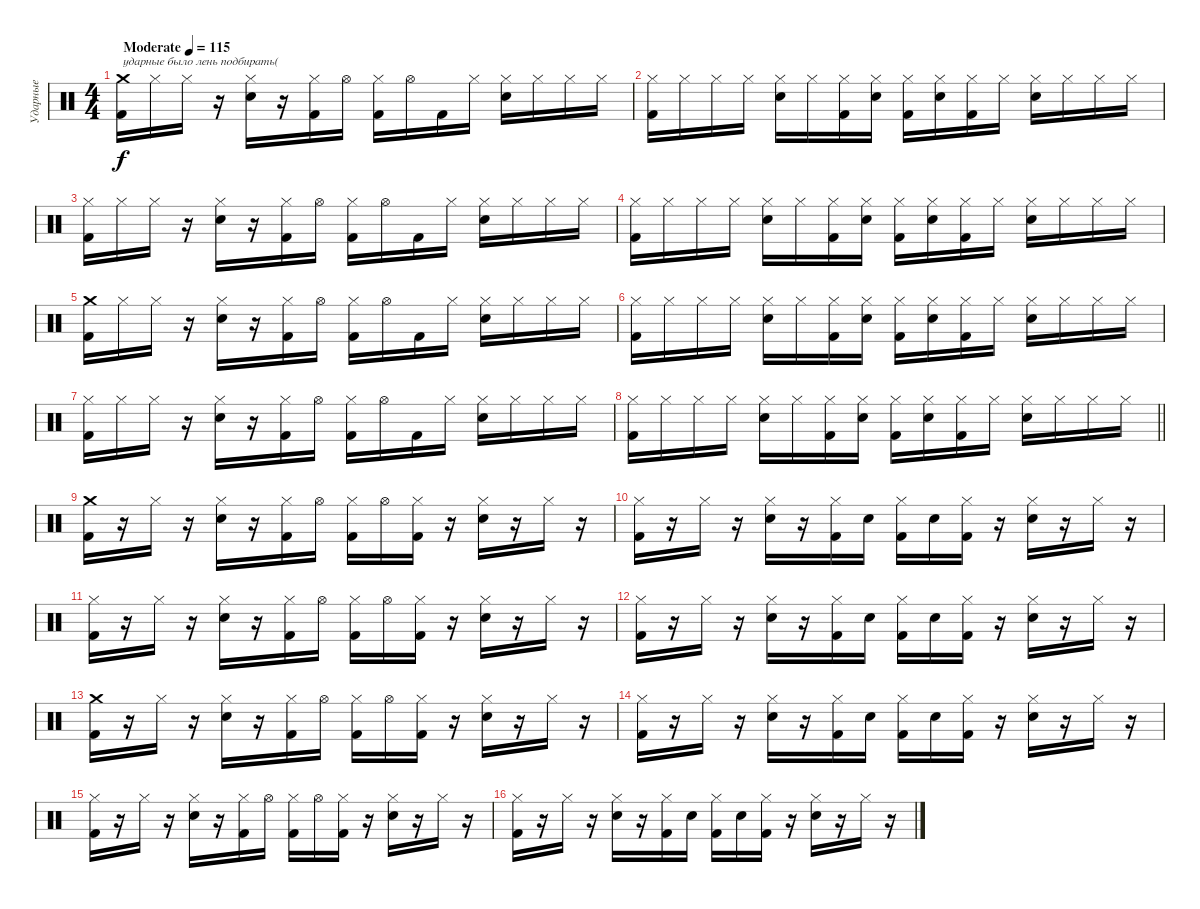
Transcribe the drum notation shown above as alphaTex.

\track ("Ударные" "Ударные") {instrument percussion}
\staff {score}
\articulation defaults
\ts (4 4)
\tempo (115 "Moderate")
\clef neutral
\ks c
("Crash medium (hit)" "Kick (hit) 2").16{txt "ударные было лень подбирать(" dy f} "Hi-Hat (closed)".16 "Hi-Hat (closed)".16 r.16 ("Hi-Hat (closed)" "Snare (hit) 2").16 r.16 ("Hi-Hat (closed)" "Kick (hit) 2").16 "Hi-Hat (open)".16 ("Hi-Hat (closed)" "Kick (hit) 2").16 "Hi-Hat (open)".16 "Kick (hit) 2".16 "Hi-Hat (closed)".16 ("Hi-Hat (closed)" "Snare (hit) 2").16 "Hi-Hat (closed)".16 "Hi-Hat (closed)".16 "Hi-Hat (closed)".16 |
("Hi-Hat (closed)" "Kick (hit) 2").16 "Hi-Hat (closed)".16 "Hi-Hat (closed)".16 "Hi-Hat (closed)".16 ("Hi-Hat (closed)" "Snare (hit) 2").16 "Hi-Hat (closed)".16 ("Hi-Hat (closed)" "Kick (hit) 2").16 ("Hi-Hat (closed)" "Snare (hit) 2").16 ("Hi-Hat (closed)" "Kick (hit) 2").16 ("Hi-Hat (closed)" "Snare (hit) 2").16 ("Hi-Hat (closed)" "Kick (hit) 2").16 "Hi-Hat (closed)".16 ("Hi-Hat (closed)" "Snare (hit) 2").16 "Hi-Hat (closed)".16 "Hi-Hat (closed)".16 "Hi-Hat (closed)".16 |
("Hi-Hat (closed)" "Kick (hit) 2").16 "Hi-Hat (closed)".16 "Hi-Hat (closed)".16 r.16 ("Hi-Hat (closed)" "Snare (hit) 2").16 r.16 ("Hi-Hat (closed)" "Kick (hit) 2").16 "Hi-Hat (open)".16 ("Hi-Hat (closed)" "Kick (hit) 2").16 "Hi-Hat (open)".16 "Kick (hit) 2".16 "Hi-Hat (closed)".16 ("Hi-Hat (closed)" "Snare (hit) 2").16 "Hi-Hat (closed)".16 "Hi-Hat (closed)".16 "Hi-Hat (closed)".16 |
("Hi-Hat (closed)" "Kick (hit) 2").16 "Hi-Hat (closed)".16 "Hi-Hat (closed)".16 "Hi-Hat (closed)".16 ("Hi-Hat (closed)" "Snare (hit) 2").16 "Hi-Hat (closed)".16 ("Hi-Hat (closed)" "Kick (hit) 2").16 ("Hi-Hat (closed)" "Snare (hit) 2").16 ("Hi-Hat (closed)" "Kick (hit) 2").16 ("Hi-Hat (closed)" "Snare (hit) 2").16 ("Hi-Hat (closed)" "Kick (hit) 2").16 "Hi-Hat (closed)".16 ("Hi-Hat (closed)" "Snare (hit) 2").16 "Hi-Hat (closed)".16 "Hi-Hat (closed)".16 "Hi-Hat (closed)".16 |
("Crash medium (hit)" "Kick (hit) 2").16 "Hi-Hat (closed)".16 "Hi-Hat (closed)".16 r.16 ("Hi-Hat (closed)" "Snare (hit) 2").16 r.16 ("Hi-Hat (closed)" "Kick (hit) 2").16 "Hi-Hat (open)".16 ("Hi-Hat (closed)" "Kick (hit) 2").16 "Hi-Hat (open)".16 "Kick (hit) 2".16 "Hi-Hat (closed)".16 ("Hi-Hat (closed)" "Snare (hit) 2").16 "Hi-Hat (closed)".16 "Hi-Hat (closed)".16 "Hi-Hat (closed)".16 |
("Hi-Hat (closed)" "Kick (hit) 2").16 "Hi-Hat (closed)".16 "Hi-Hat (closed)".16 "Hi-Hat (closed)".16 ("Hi-Hat (closed)" "Snare (hit) 2").16 "Hi-Hat (closed)".16 ("Hi-Hat (closed)" "Kick (hit) 2").16 ("Hi-Hat (closed)" "Snare (hit) 2").16 ("Hi-Hat (closed)" "Kick (hit) 2").16 ("Hi-Hat (closed)" "Snare (hit) 2").16 ("Hi-Hat (closed)" "Kick (hit) 2").16 "Hi-Hat (closed)".16 ("Hi-Hat (closed)" "Snare (hit) 2").16 "Hi-Hat (closed)".16 "Hi-Hat (closed)".16 "Hi-Hat (closed)".16 |
("Hi-Hat (closed)" "Kick (hit) 2").16 "Hi-Hat (closed)".16 "Hi-Hat (closed)".16 r.16 ("Hi-Hat (closed)" "Snare (hit) 2").16 r.16 ("Hi-Hat (closed)" "Kick (hit) 2").16 "Hi-Hat (open)".16 ("Hi-Hat (closed)" "Kick (hit) 2").16 "Hi-Hat (open)".16 "Kick (hit) 2".16 "Hi-Hat (closed)".16 ("Hi-Hat (closed)" "Snare (hit) 2").16 "Hi-Hat (closed)".16 "Hi-Hat (closed)".16 "Hi-Hat (closed)".16 |
\barLineRight lightlight
("Hi-Hat (closed)" "Kick (hit) 2").16 "Hi-Hat (closed)".16 "Hi-Hat (closed)".16 "Hi-Hat (closed)".16 ("Hi-Hat (closed)" "Snare (hit) 2").16 "Hi-Hat (closed)".16 ("Hi-Hat (closed)" "Kick (hit) 2").16 ("Hi-Hat (closed)" "Snare (hit) 2").16 ("Hi-Hat (closed)" "Kick (hit) 2").16 ("Hi-Hat (closed)" "Snare (hit) 2").16 ("Hi-Hat (closed)" "Kick (hit) 2").16 "Hi-Hat (closed)".16 ("Hi-Hat (closed)" "Snare (hit) 2").16 "Hi-Hat (closed)".16 "Hi-Hat (closed)".16 "Hi-Hat (closed)".16 |
\section ("" "")
("Crash medium (hit)" "Kick (hit) 2").16 r.16 "Hi-Hat (closed)".16 r.16 ("Hi-Hat (closed)" "Snare (hit) 2").16 r.16 ("Hi-Hat (closed)" "Kick (hit) 2").16 "Hi-Hat (open)".16 ("Hi-Hat (closed)" "Kick (hit) 2").16 "Hi-Hat (open)".16 ("Hi-Hat (closed)" "Kick (hit) 2").16 r.16 ("Hi-Hat (closed)" "Snare (hit) 2").16 r.16 "Hi-Hat (closed)".16 r.16 |
("Hi-Hat (closed)" "Kick (hit) 2").16 r.16 "Hi-Hat (closed)".16 r.16 ("Hi-Hat (closed)" "Snare (hit) 2").16 r.16 ("Hi-Hat (closed)" "Kick (hit) 2").16 "Snare (hit) 2".16 ("Hi-Hat (closed)" "Kick (hit) 2").16 "Snare (hit) 2".16 ("Hi-Hat (closed)" "Kick (hit) 2").16 r.16 ("Hi-Hat (closed)" "Snare (hit) 2").16 r.16 "Hi-Hat (closed)".16 r.16 |
("Hi-Hat (closed)" "Kick (hit) 2").16 r.16 "Hi-Hat (closed)".16 r.16 ("Hi-Hat (closed)" "Snare (hit) 2").16 r.16 ("Hi-Hat (closed)" "Kick (hit) 2").16 "Hi-Hat (open)".16 ("Hi-Hat (closed)" "Kick (hit) 2").16 "Hi-Hat (open)".16 ("Hi-Hat (closed)" "Kick (hit) 2").16 r.16 ("Hi-Hat (closed)" "Snare (hit) 2").16 r.16 "Hi-Hat (closed)".16 r.16 |
("Hi-Hat (closed)" "Kick (hit) 2").16 r.16 "Hi-Hat (closed)".16 r.16 ("Hi-Hat (closed)" "Snare (hit) 2").16 r.16 ("Hi-Hat (closed)" "Kick (hit) 2").16 "Snare (hit) 2".16 ("Hi-Hat (closed)" "Kick (hit) 2").16 "Snare (hit) 2".16 ("Hi-Hat (closed)" "Kick (hit) 2").16 r.16 ("Hi-Hat (closed)" "Snare (hit) 2").16 r.16 "Hi-Hat (closed)".16 r.16 |
("Crash medium (hit)" "Kick (hit) 2").16 r.16 "Hi-Hat (closed)".16 r.16 ("Hi-Hat (closed)" "Snare (hit) 2").16 r.16 ("Hi-Hat (closed)" "Kick (hit) 2").16 "Hi-Hat (open)".16 ("Hi-Hat (closed)" "Kick (hit) 2").16 "Hi-Hat (open)".16 ("Hi-Hat (closed)" "Kick (hit) 2").16 r.16 ("Hi-Hat (closed)" "Snare (hit) 2").16 r.16 "Hi-Hat (closed)".16 r.16 |
("Hi-Hat (closed)" "Kick (hit) 2").16 r.16 "Hi-Hat (closed)".16 r.16 ("Hi-Hat (closed)" "Snare (hit) 2").16 r.16 ("Hi-Hat (closed)" "Kick (hit) 2").16 "Snare (hit) 2".16 ("Hi-Hat (closed)" "Kick (hit) 2").16 "Snare (hit) 2".16 ("Hi-Hat (closed)" "Kick (hit) 2").16 r.16 ("Hi-Hat (closed)" "Snare (hit) 2").16 r.16 "Hi-Hat (closed)".16 r.16 |
("Hi-Hat (closed)" "Kick (hit) 2").16 r.16 "Hi-Hat (closed)".16 r.16 ("Hi-Hat (closed)" "Snare (hit) 2").16 r.16 ("Hi-Hat (closed)" "Kick (hit) 2").16 "Hi-Hat (open)".16 ("Hi-Hat (closed)" "Kick (hit) 2").16 "Hi-Hat (open)".16 ("Hi-Hat (closed)" "Kick (hit) 2").16 r.16 ("Hi-Hat (closed)" "Snare (hit) 2").16 r.16 "Hi-Hat (closed)".16 r.16 |
("Hi-Hat (closed)" "Kick (hit) 2").16 r.16 "Hi-Hat (closed)".16 r.16 ("Hi-Hat (closed)" "Snare (hit) 2").16 r.16 ("Hi-Hat (closed)" "Kick (hit) 2").16 "Snare (hit) 2".16 ("Hi-Hat (closed)" "Kick (hit) 2").16 "Snare (hit) 2".16 ("Hi-Hat (closed)" "Kick (hit) 2").16 r.16 ("Hi-Hat (closed)" "Snare (hit) 2").16 r.16 "Hi-Hat (closed)".16 r.16
